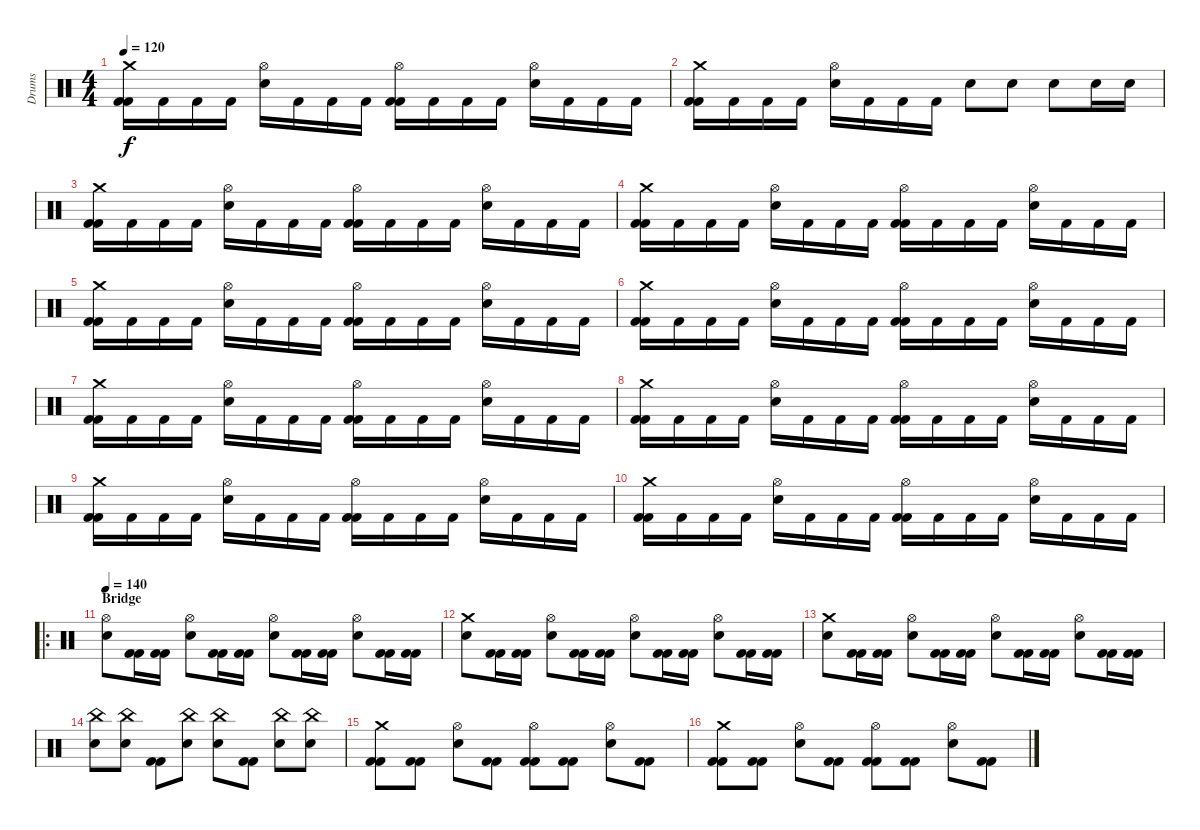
\track ("Drums" "Drums") {instrument percussion}
\staff {score}
\articulation defaults
\ts (4 4)
\tempo 120
\clef neutral
\ks c
("Crash medium (hit)" "Kick (hit) 2" "Kick (hit) 2").16{dy f} "Kick (hit) 2".16 "Kick (hit) 2".16 "Kick (hit) 2".16 ("Electric Snare (hit)" "Hi-Hat (open)").16 "Kick (hit) 2".16 "Kick (hit) 2".16 "Kick (hit) 2".16 ("Hi-Hat (open)" "Kick (hit) 2" "Kick (hit) 2").16 "Kick (hit) 2".16 "Kick (hit) 2".16 "Kick (hit) 2".16 ("Electric Snare (hit)" "Hi-Hat (open)").16 "Kick (hit) 2".16 "Kick (hit) 2".16 "Kick (hit) 2".16 |
("Crash medium (hit)" "Kick (hit) 2" "Kick (hit) 2").16 "Kick (hit) 2".16 "Kick (hit) 2".16 "Kick (hit) 2".16 ("Electric Snare (hit)" "Hi-Hat (open)").16 "Kick (hit) 2".16 "Kick (hit) 2".16 "Kick (hit) 2".16 "Electric Snare (hit)".8 "Electric Snare (hit)".8 "Electric Snare (hit)".8 "Electric Snare (hit)".16 "Electric Snare (hit)".16 |
("Crash medium (hit)" "Kick (hit) 2" "Kick (hit) 2").16 "Kick (hit) 2".16 "Kick (hit) 2".16 "Kick (hit) 2".16 ("Electric Snare (hit)" "Hi-Hat (open)").16 "Kick (hit) 2".16 "Kick (hit) 2".16 "Kick (hit) 2".16 ("Hi-Hat (open)" "Kick (hit) 2" "Kick (hit) 2").16 "Kick (hit) 2".16 "Kick (hit) 2".16 "Kick (hit) 2".16 ("Electric Snare (hit)" "Hi-Hat (open)").16 "Kick (hit) 2".16 "Kick (hit) 2".16 "Kick (hit) 2".16 |
("Crash medium (hit)" "Kick (hit) 2" "Kick (hit) 2").16 "Kick (hit) 2".16 "Kick (hit) 2".16 "Kick (hit) 2".16 ("Electric Snare (hit)" "Hi-Hat (open)").16 "Kick (hit) 2".16 "Kick (hit) 2".16 "Kick (hit) 2".16 ("Hi-Hat (open)" "Kick (hit) 2" "Kick (hit) 2").16 "Kick (hit) 2".16 "Kick (hit) 2".16 "Kick (hit) 2".16 ("Electric Snare (hit)" "Hi-Hat (open)").16 "Kick (hit) 2".16 "Kick (hit) 2".16 "Kick (hit) 2".16 |
("Crash medium (hit)" "Kick (hit) 2" "Kick (hit) 2").16 "Kick (hit) 2".16 "Kick (hit) 2".16 "Kick (hit) 2".16 ("Electric Snare (hit)" "Hi-Hat (open)").16 "Kick (hit) 2".16 "Kick (hit) 2".16 "Kick (hit) 2".16 ("Hi-Hat (open)" "Kick (hit) 2" "Kick (hit) 2").16 "Kick (hit) 2".16 "Kick (hit) 2".16 "Kick (hit) 2".16 ("Electric Snare (hit)" "Hi-Hat (open)").16 "Kick (hit) 2".16 "Kick (hit) 2".16 "Kick (hit) 2".16 |
("Crash medium (hit)" "Kick (hit) 2" "Kick (hit) 2").16 "Kick (hit) 2".16 "Kick (hit) 2".16 "Kick (hit) 2".16 ("Electric Snare (hit)" "Hi-Hat (open)").16 "Kick (hit) 2".16 "Kick (hit) 2".16 "Kick (hit) 2".16 ("Hi-Hat (open)" "Kick (hit) 2" "Kick (hit) 2").16 "Kick (hit) 2".16 "Kick (hit) 2".16 "Kick (hit) 2".16 ("Electric Snare (hit)" "Hi-Hat (open)").16 "Kick (hit) 2".16 "Kick (hit) 2".16 "Kick (hit) 2".16 |
("Crash medium (hit)" "Kick (hit) 2" "Kick (hit) 2").16 "Kick (hit) 2".16 "Kick (hit) 2".16 "Kick (hit) 2".16 ("Electric Snare (hit)" "Hi-Hat (open)").16 "Kick (hit) 2".16 "Kick (hit) 2".16 "Kick (hit) 2".16 ("Hi-Hat (open)" "Kick (hit) 2" "Kick (hit) 2").16 "Kick (hit) 2".16 "Kick (hit) 2".16 "Kick (hit) 2".16 ("Electric Snare (hit)" "Hi-Hat (open)").16 "Kick (hit) 2".16 "Kick (hit) 2".16 "Kick (hit) 2".16 |
("Crash medium (hit)" "Kick (hit) 2" "Kick (hit) 2").16 "Kick (hit) 2".16 "Kick (hit) 2".16 "Kick (hit) 2".16 ("Electric Snare (hit)" "Hi-Hat (open)").16 "Kick (hit) 2".16 "Kick (hit) 2".16 "Kick (hit) 2".16 ("Hi-Hat (open)" "Kick (hit) 2" "Kick (hit) 2").16 "Kick (hit) 2".16 "Kick (hit) 2".16 "Kick (hit) 2".16 ("Electric Snare (hit)" "Hi-Hat (open)").16 "Kick (hit) 2".16 "Kick (hit) 2".16 "Kick (hit) 2".16 |
("Crash medium (hit)" "Kick (hit) 2" "Kick (hit) 2").16 "Kick (hit) 2".16 "Kick (hit) 2".16 "Kick (hit) 2".16 ("Electric Snare (hit)" "Hi-Hat (open)").16 "Kick (hit) 2".16 "Kick (hit) 2".16 "Kick (hit) 2".16 ("Hi-Hat (open)" "Kick (hit) 2" "Kick (hit) 2").16 "Kick (hit) 2".16 "Kick (hit) 2".16 "Kick (hit) 2".16 ("Electric Snare (hit)" "Hi-Hat (open)").16 "Kick (hit) 2".16 "Kick (hit) 2".16 "Kick (hit) 2".16 |
("Crash medium (hit)" "Kick (hit) 2" "Kick (hit) 2").16 "Kick (hit) 2".16 "Kick (hit) 2".16 "Kick (hit) 2".16 ("Electric Snare (hit)" "Hi-Hat (open)").16 "Kick (hit) 2".16 "Kick (hit) 2".16 "Kick (hit) 2".16 ("Hi-Hat (open)" "Kick (hit) 2" "Kick (hit) 2").16 "Kick (hit) 2".16 "Kick (hit) 2".16 "Kick (hit) 2".16 ("Electric Snare (hit)" "Hi-Hat (open)").16 "Kick (hit) 2".16 "Kick (hit) 2".16 "Kick (hit) 2".16 |
\ro
\section ("" "Bridge")
\tempo 140
("Hi-Hat (open)" "Electric Snare (hit)").8 ("Kick (hit) 2" "Kick (hit) 2").16 ("Kick (hit) 2" "Kick (hit) 2").16 ("Hi-Hat (open)" "Electric Snare (hit)").8 ("Kick (hit) 2" "Kick (hit) 2").16 ("Kick (hit) 2" "Kick (hit) 2").16 ("Hi-Hat (open)" "Electric Snare (hit)").8 ("Kick (hit) 2" "Kick (hit) 2").16 ("Kick (hit) 2" "Kick (hit) 2").16 ("Hi-Hat (open)" "Electric Snare (hit)").8 ("Kick (hit) 2" "Kick (hit) 2").16 ("Kick (hit) 2" "Kick (hit) 2").16 |
("Crash medium (hit)" "Electric Snare (hit)").8 ("Kick (hit) 2" "Kick (hit) 2").16 ("Kick (hit) 2" "Kick (hit) 2").16 ("Hi-Hat (open)" "Electric Snare (hit)").8 ("Kick (hit) 2" "Kick (hit) 2").16 ("Kick (hit) 2" "Kick (hit) 2").16 ("Hi-Hat (open)" "Electric Snare (hit)").8 ("Kick (hit) 2" "Kick (hit) 2").16 ("Kick (hit) 2" "Kick (hit) 2").16 ("Hi-Hat (open)" "Electric Snare (hit)").8 ("Kick (hit) 2" "Kick (hit) 2").16 ("Kick (hit) 2" "Kick (hit) 2").16 |
("Crash medium (hit)" "Electric Snare (hit)").8 ("Kick (hit) 2" "Kick (hit) 2").16 ("Kick (hit) 2" "Kick (hit) 2").16 ("Hi-Hat (open)" "Electric Snare (hit)").8 ("Kick (hit) 2" "Kick (hit) 2").16 ("Kick (hit) 2" "Kick (hit) 2").16 ("Hi-Hat (open)" "Electric Snare (hit)").8 ("Kick (hit) 2" "Kick (hit) 2").16 ("Kick (hit) 2" "Kick (hit) 2").16 ("Hi-Hat (open)" "Electric Snare (hit)").8 ("Kick (hit) 2" "Kick (hit) 2").16 ("Kick (hit) 2" "Kick (hit) 2").16 |
("China (hit)" "Electric Snare (hit)").8 ("Electric Snare (hit)" "China (hit)").8 ("Kick (hit) 2" "Kick (hit) 2").8 ("Electric Snare (hit)" "China (hit)").8 ("China (hit)" "Electric Snare (hit)").8 ("Kick (hit) 2" "Kick (hit) 2").8 ("Electric Snare (hit)" "China (hit)").8 ("China (hit)" "Electric Snare (hit)").8 |
("Crash medium (hit)" "Kick (hit) 2" "Kick (hit) 2").8 ("Kick (hit) 2" "Kick (hit) 2").8 ("Electric Snare (hit)" "Hi-Hat (open)").8 ("Kick (hit) 2" "Kick (hit) 2").8 ("Kick (hit) 2" "Hi-Hat (open)" "Kick (hit) 2").8 ("Kick (hit) 2" "Kick (hit) 2").8 ("Electric Snare (hit)" "Hi-Hat (open)").8 ("Kick (hit) 2" "Kick (hit) 2").8 |
("Crash medium (hit)" "Kick (hit) 2" "Kick (hit) 2").8 ("Kick (hit) 2" "Kick (hit) 2").8 ("Electric Snare (hit)" "Hi-Hat (open)").8 ("Kick (hit) 2" "Kick (hit) 2").8 ("Kick (hit) 2" "Hi-Hat (open)" "Kick (hit) 2").8 ("Kick (hit) 2" "Kick (hit) 2").8 ("Electric Snare (hit)" "Hi-Hat (open)").8 ("Kick (hit) 2" "Kick (hit) 2").8
